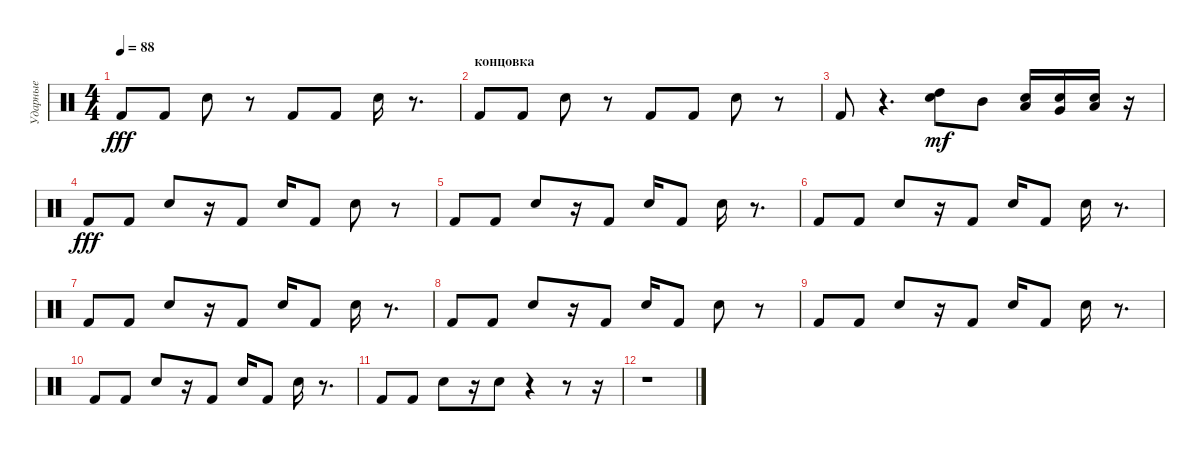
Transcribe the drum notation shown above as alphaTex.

\track ("Ударные" "Ударные") {instrument percussion}
\staff {score}
\articulation defaults
\ts (4 4)
\tempo 88
\clef neutral
\ks c "Kick (hit) 2".8{dy fff} "Kick (hit) 2".8 "Electric Snare (hit)".8
r.8 "Kick (hit) 2".8 "Kick (hit) 2".8 "Electric Snare (hit)".16 r.8{d} |
\section ("" "концовка")
"Kick (hit) 2".8 "Kick (hit) 2".8 "Electric Snare (hit)".8 r.8 "Kick (hit) 2".8 "Kick (hit) 2".8 "Electric Snare (hit)".8 r.8 |
"Kick (hit) 2".8 r.4{d} ("High Tom (hit)" "Electric Snare (hit)").8{dy mf} "Mid Tom (hit)".8 ("Electric Snare (hit)" "Low Tom (hit)").16 ("Electric Snare (hit)" "Very Low Tom (hit)").16 ("Electric Snare (hit)" "Low Floor Tom (hit)").16 r.16 |
"Kick (hit) 2".8{dy fff} "Kick (hit) 2".8 "Electric Snare (hit)".8 r.16 "Kick (hit) 2".8 "Electric Snare (hit)".16 "Kick (hit) 2".8 "Electric Snare (hit)".8 r.8 |
"Kick (hit) 2".8 "Kick (hit) 2".8 "Electric Snare (hit)".8 r.16 "Kick (hit) 2".8 "Electric Snare (hit)".16 "Kick (hit) 2".8 "Electric Snare (hit)".16 r.8{d} |
"Kick (hit) 2".8 "Kick (hit) 2".8 "Electric Snare (hit)".8 r.16 "Kick (hit) 2".8 "Electric Snare (hit)".16 "Kick (hit) 2".8 "Electric Snare (hit)".16 r.8{d} |
"Kick (hit) 2".8 "Kick (hit) 2".8 "Electric Snare (hit)".8 r.16 "Kick (hit) 2".8 "Electric Snare (hit)".16 "Kick (hit) 2".8 "Electric Snare (hit)".16 r.8{d} |
"Kick (hit) 2".8 "Kick (hit) 2".8 "Electric Snare (hit)".8 r.16 "Kick (hit) 2".8 "Electric Snare (hit)".16 "Kick (hit) 2".8 "Electric Snare (hit)".8 r.8 |
"Kick (hit) 2".8 "Kick (hit) 2".8 "Electric Snare (hit)".8 r.16 "Kick (hit) 2".8 "Electric Snare (hit)".16 "Kick (hit) 2".8 "Electric Snare (hit)".16 r.8{d} |
"Kick (hit) 2".8 "Kick (hit) 2".8 "Electric Snare (hit)".8 r.16 "Kick (hit) 2".8 "Electric Snare (hit)".16 "Kick (hit) 2".8 "Electric Snare (hit)".16 r.8{d} |
"Kick (hit) 2".8 "Kick (hit) 2".8 "Electric Snare (hit)".8 r.16 "Electric Snare (hit)".8 r.4 r.8 r.16 |
r.1
